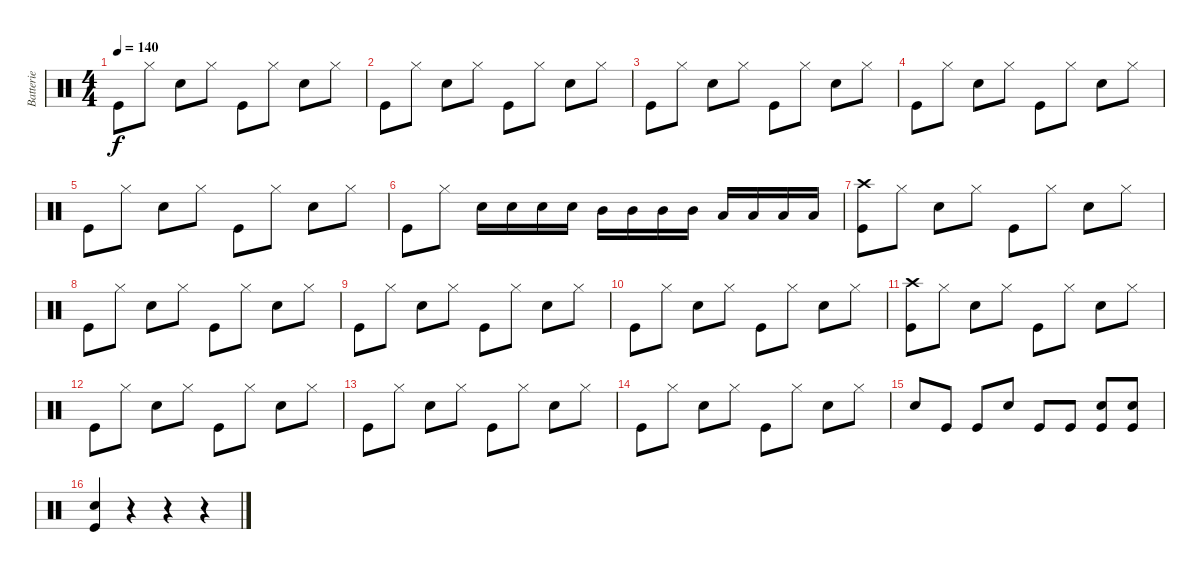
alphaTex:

\track ("Batterie" "Batterie") {instrument percussion}
\staff {score}
\articulation defaults
\ts (4 4)
\tempo 140
\clef neutral
\ks c "Kick (hit)".8{dy f} "Hi-Hat (closed)".8 "Snare (hit) 2".8 "Hi-Hat (closed)".8 "Kick (hit)".8 "Hi-Hat (closed)".8 "Snare (hit) 2".8 "Hi-Hat (closed)".8
|
"Kick (hit)".8 "Hi-Hat (closed)".8 "Snare (hit) 2".8 "Hi-Hat (closed)".8 "Kick (hit)".8 "Hi-Hat (closed)".8 "Snare (hit) 2".8 "Hi-Hat (closed)".8 |
"Kick (hit)".8 "Hi-Hat (closed)".8 "Snare (hit) 2".8 "Hi-Hat (closed)".8 "Kick (hit)".8 "Hi-Hat (closed)".8 "Snare (hit) 2".8 "Hi-Hat (closed)".8 |
"Kick (hit)".8 "Hi-Hat (closed)".8 "Snare (hit) 2".8 "Hi-Hat (closed)".8 "Kick (hit)".8 "Hi-Hat (closed)".8 "Snare (hit) 2".8 "Hi-Hat (closed)".8 |
"Kick (hit)".8 "Hi-Hat (closed)".8 "Snare (hit) 2".8 "Hi-Hat (closed)".8 "Kick (hit)".8 "Hi-Hat (closed)".8 "Snare (hit) 2".8 "Hi-Hat (closed)".8 |
"Kick (hit)".8 "Hi-Hat (closed)".8 "Snare (hit) 2".16 "Snare (hit) 2".16 "Snare (hit) 2".16 "Snare (hit) 2".16 "Mid Tom (hit)".16 "Mid Tom (hit)".16 "Mid Tom (hit)".16 "Mid Tom (hit)".16 "Low Tom (hit)".16 "Low Tom (hit)".16 "Low Tom (hit)".16 "Low Tom (hit)".16 |
("Kick (hit)" "Crash high (hit)").8 "Hi-Hat (closed)".8 "Snare (hit) 2".8 "Hi-Hat (closed)".8 "Kick (hit)".8 "Hi-Hat (closed)".8 "Snare (hit) 2".8 "Hi-Hat (closed)".8 |
"Kick (hit)".8 "Hi-Hat (closed)".8 "Snare (hit) 2".8 "Hi-Hat (closed)".8 "Kick (hit)".8 "Hi-Hat (closed)".8 "Snare (hit) 2".8 "Hi-Hat (closed)".8 |
"Kick (hit)".8 "Hi-Hat (closed)".8 "Snare (hit) 2".8 "Hi-Hat (closed)".8 "Kick (hit)".8 "Hi-Hat (closed)".8 "Snare (hit) 2".8 "Hi-Hat (closed)".8 |
"Kick (hit)".8 "Hi-Hat (closed)".8 "Snare (hit) 2".8 "Hi-Hat (closed)".8 "Kick (hit)".8 "Hi-Hat (closed)".8 "Snare (hit) 2".8 "Hi-Hat (closed)".8 |
("Kick (hit)" "Crash high (hit)").8 "Hi-Hat (closed)".8 "Snare (hit) 2".8 "Hi-Hat (closed)".8 "Kick (hit)".8 "Hi-Hat (closed)".8 "Snare (hit) 2".8 "Hi-Hat (closed)".8 |
"Kick (hit)".8 "Hi-Hat (closed)".8 "Snare (hit) 2".8 "Hi-Hat (closed)".8 "Kick (hit)".8 "Hi-Hat (closed)".8 "Snare (hit) 2".8 "Hi-Hat (closed)".8 |
"Kick (hit)".8 "Hi-Hat (closed)".8 "Snare (hit) 2".8 "Hi-Hat (closed)".8 "Kick (hit)".8 "Hi-Hat (closed)".8 "Snare (hit) 2".8 "Hi-Hat (closed)".8 |
"Kick (hit)".8 "Hi-Hat (closed)".8 "Snare (hit) 2".8 "Hi-Hat (closed)".8 "Kick (hit)".8 "Hi-Hat (closed)".8 "Snare (hit) 2".8 "Hi-Hat (closed)".8 |
"Snare (hit) 2".8 "Kick (hit)".8 "Kick (hit)".8 "Snare (hit) 2".8 "Kick (hit)".8 "Kick (hit)".8 ("Snare (hit) 2" "Kick (hit)").8 ("Snare (hit) 2" "Kick (hit)").8 |
("Snare (hit) 2" "Kick (hit)").4 r.4 r.4 r.4
